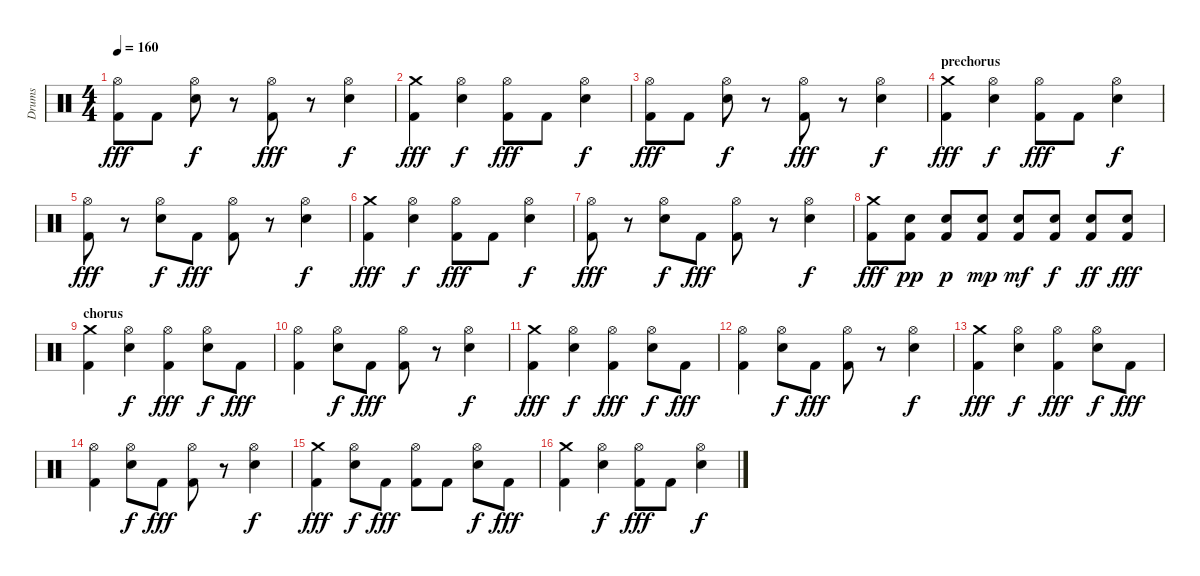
\track ("Drums" "Drums") {instrument percussion}
\staff {score}
\articulation defaults
\ts (4 4)
\tempo 160
\clef neutral
\ks c
("Hi-Hat (open)" "Kick (hit) 2").8{dy fff} "Kick (hit) 2".8 ("Hi-Hat (open)" "Electric Snare (hit)").8{dy f} r.8 ("Hi-Hat (open)" "Kick (hit) 2").8{dy fff} r.8 ("Hi-Hat (open)" "Electric Snare (hit)").4{dy f} |
("Crash medium (hit)" "Kick (hit) 2").4{dy fff} ("Hi-Hat (open)" "Electric Snare (hit)").4{dy f} ("Hi-Hat (open)" "Kick (hit) 2").8{dy fff} "Kick (hit) 2".8 ("Hi-Hat (open)" "Electric Snare (hit)").4{dy f} |
("Hi-Hat (open)" "Kick (hit) 2").8{dy fff} "Kick (hit) 2".8 ("Hi-Hat (open)" "Electric Snare (hit)").8{dy f} r.8 ("Hi-Hat (open)" "Kick (hit) 2").8{dy fff} r.8 ("Hi-Hat (open)" "Electric Snare (hit)").4{dy f} |
\section ("" "prechorus")
("Crash medium (hit)" "Kick (hit) 2").4{dy fff} ("Hi-Hat (open)" "Electric Snare (hit)").4{dy f} ("Hi-Hat (open)" "Kick (hit) 2").8{dy fff} "Kick (hit) 2".8 ("Hi-Hat (open)" "Electric Snare (hit)").4{dy f} |
("Hi-Hat (open)" "Kick (hit) 2").8{dy fff} r.8 ("Hi-Hat (open)" "Electric Snare (hit)").8{dy f} "Kick (hit) 2".8{dy fff} ("Hi-Hat (open)" "Kick (hit) 2").8 r.8 ("Hi-Hat (open)" "Electric Snare (hit)").4{dy f} |
("Crash medium (hit)" "Kick (hit) 2").4{dy fff} ("Hi-Hat (open)" "Electric Snare (hit)").4{dy f} ("Hi-Hat (open)" "Kick (hit) 2").8{dy fff} "Kick (hit) 2".8 ("Hi-Hat (open)" "Electric Snare (hit)").4{dy f} |
("Hi-Hat (open)" "Kick (hit) 2").8{dy fff} r.8 ("Hi-Hat (open)" "Electric Snare (hit)").8{dy f} "Kick (hit) 2".8{dy fff} ("Hi-Hat (open)" "Kick (hit) 2").8 r.8 ("Hi-Hat (open)" "Electric Snare (hit)").4{dy f} |
("Crash medium (hit)" "Kick (hit) 2").8{dy fff} ("Electric Snare (hit)" "Kick (hit) 2").8{dy pp} ("Electric Snare (hit)" "Kick (hit) 2").8{dy p} ("Electric Snare (hit)" "Kick (hit) 2").8{dy mp} ("Electric Snare (hit)" "Kick (hit) 2").8{dy mf} ("Electric Snare (hit)" "Kick (hit) 2").8{dy f} ("Electric Snare (hit)" "Kick (hit) 2").8{dy ff} ("Electric Snare (hit)" "Kick (hit) 2").8{dy fff} |
\section ("" "chorus")
("Crash medium (hit)" "Kick (hit) 2").4 ("Hi-Hat (open)" "Electric Snare (hit)").4{dy f} ("Hi-Hat (open)" "Kick (hit) 2").4{dy fff} ("Hi-Hat (open)" "Electric Snare (hit)").8{dy f} "Kick (hit) 2".8{dy fff} |
("Hi-Hat (open)" "Kick (hit) 2").4 ("Hi-Hat (open)" "Electric Snare (hit)").8{dy f} "Kick (hit) 2".8{dy fff} ("Hi-Hat (open)" "Kick (hit) 2").8 r.8 ("Hi-Hat (open)" "Electric Snare (hit)").4{dy f} |
("Crash medium (hit)" "Kick (hit) 2").4{dy fff} ("Hi-Hat (open)" "Electric Snare (hit)").4{dy f} ("Hi-Hat (open)" "Kick (hit) 2").4{dy fff} ("Hi-Hat (open)" "Electric Snare (hit)").8{dy f} "Kick (hit) 2".8{dy fff} |
("Hi-Hat (open)" "Kick (hit) 2").4 ("Hi-Hat (open)" "Electric Snare (hit)").8{dy f} "Kick (hit) 2".8{dy fff} ("Hi-Hat (open)" "Kick (hit) 2").8 r.8 ("Hi-Hat (open)" "Electric Snare (hit)").4{dy f} |
("Crash medium (hit)" "Kick (hit) 2").4{dy fff} ("Hi-Hat (open)" "Electric Snare (hit)").4{dy f} ("Hi-Hat (open)" "Kick (hit) 2").4{dy fff} ("Hi-Hat (open)" "Electric Snare (hit)").8{dy f} "Kick (hit) 2".8{dy fff} |
("Hi-Hat (open)" "Kick (hit) 2").4 ("Hi-Hat (open)" "Electric Snare (hit)").8{dy f} "Kick (hit) 2".8{dy fff} ("Hi-Hat (open)" "Kick (hit) 2").8 r.8 ("Hi-Hat (open)" "Electric Snare (hit)").4{dy f} |
("Crash medium (hit)" "Kick (hit) 2").4{dy fff} ("Hi-Hat (open)" "Electric Snare (hit)").8{dy f} "Kick (hit) 2".8{dy fff} ("Hi-Hat (open)" "Kick (hit) 2").8 "Kick (hit) 2".8 ("Hi-Hat (open)" "Electric Snare (hit)").8{dy f} "Kick (hit) 2".8{dy fff} |
("Crash medium (hit)" "Kick (hit) 2").4 ("Hi-Hat (open)" "Electric Snare (hit)").4{dy f} ("Hi-Hat (open)" "Kick (hit) 2").8{dy fff} "Kick (hit) 2".8 ("Hi-Hat (open)" "Electric Snare (hit)").4{dy f}
